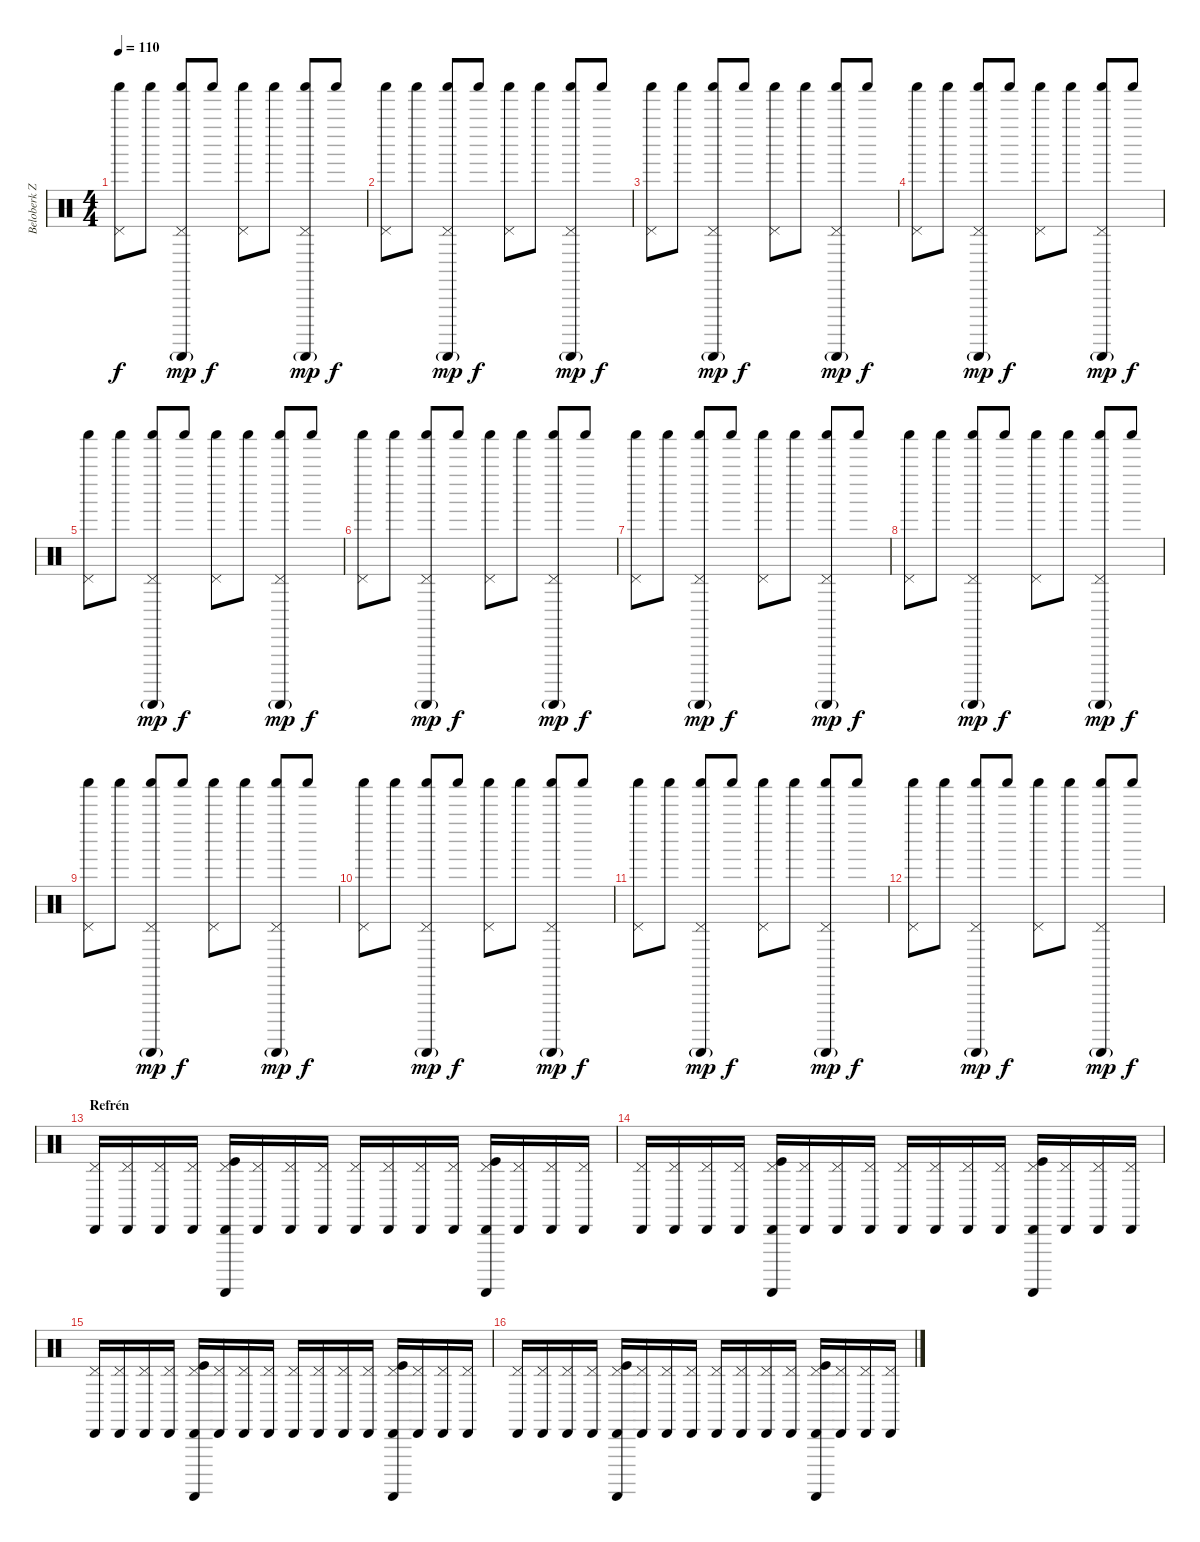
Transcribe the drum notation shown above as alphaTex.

\track ("Beloberk Zsolt" "Beloberk Z") {instrument percussion}
\staff {score}
\articulation defaults
\ts (4 4)
\tempo 110
\clef neutral
\ks c
("Shaker (hit)" "Pedal Hi-Hat (hit)").8{dy f} "Shaker (hit)".8 ("Shaker (hit)" "Guiro (scrap-return)"{g} "Pedal Hi-Hat (hit)").8{dy mp} "Shaker (hit)".8{dy f} ("Shaker (hit)" "Pedal Hi-Hat (hit)").8 "Shaker (hit)".8 ("Shaker (hit)" "Guiro (scrap-return)"{g} "Pedal Hi-Hat (hit)").8{dy mp} "Shaker (hit)".8{dy f} |
("Shaker (hit)" "Pedal Hi-Hat (hit)").8 "Shaker (hit)".8 ("Shaker (hit)" "Guiro (scrap-return)"{g} "Pedal Hi-Hat (hit)").8{dy mp} "Shaker (hit)".8{dy f} ("Shaker (hit)" "Pedal Hi-Hat (hit)").8 "Shaker (hit)".8 ("Shaker (hit)" "Guiro (scrap-return)"{g} "Pedal Hi-Hat (hit)").8{dy mp} "Shaker (hit)".8{dy f} |
("Shaker (hit)" "Pedal Hi-Hat (hit)").8 "Shaker (hit)".8 ("Shaker (hit)" "Guiro (scrap-return)"{g} "Pedal Hi-Hat (hit)").8{dy mp} "Shaker (hit)".8{dy f} ("Shaker (hit)" "Pedal Hi-Hat (hit)").8 "Shaker (hit)".8 ("Shaker (hit)" "Guiro (scrap-return)"{g} "Pedal Hi-Hat (hit)").8{dy mp} "Shaker (hit)".8{dy f} |
("Shaker (hit)" "Pedal Hi-Hat (hit)").8 "Shaker (hit)".8 ("Shaker (hit)" "Guiro (scrap-return)"{g} "Pedal Hi-Hat (hit)").8{dy mp} "Shaker (hit)".8{dy f} ("Shaker (hit)" "Pedal Hi-Hat (hit)").8 "Shaker (hit)".8 ("Shaker (hit)" "Guiro (scrap-return)"{g} "Pedal Hi-Hat (hit)").8{dy mp} "Shaker (hit)".8{dy f} |
("Shaker (hit)" "Pedal Hi-Hat (hit)").8 "Shaker (hit)".8 ("Shaker (hit)" "Guiro (scrap-return)"{g} "Pedal Hi-Hat (hit)").8{dy mp} "Shaker (hit)".8{dy f} ("Shaker (hit)" "Pedal Hi-Hat (hit)").8 "Shaker (hit)".8 ("Shaker (hit)" "Guiro (scrap-return)"{g} "Pedal Hi-Hat (hit)").8{dy mp} "Shaker (hit)".8{dy f} |
("Shaker (hit)" "Pedal Hi-Hat (hit)").8 "Shaker (hit)".8 ("Shaker (hit)" "Guiro (scrap-return)"{g} "Pedal Hi-Hat (hit)").8{dy mp} "Shaker (hit)".8{dy f} ("Shaker (hit)" "Pedal Hi-Hat (hit)").8 "Shaker (hit)".8 ("Shaker (hit)" "Guiro (scrap-return)"{g} "Pedal Hi-Hat (hit)").8{dy mp} "Shaker (hit)".8{dy f} |
("Shaker (hit)" "Pedal Hi-Hat (hit)").8 "Shaker (hit)".8 ("Shaker (hit)" "Guiro (scrap-return)"{g} "Pedal Hi-Hat (hit)").8{dy mp} "Shaker (hit)".8{dy f} ("Shaker (hit)" "Pedal Hi-Hat (hit)").8 "Shaker (hit)".8 ("Shaker (hit)" "Guiro (scrap-return)"{g} "Pedal Hi-Hat (hit)").8{dy mp} "Shaker (hit)".8{dy f} |
("Shaker (hit)" "Pedal Hi-Hat (hit)").8 "Shaker (hit)".8 ("Shaker (hit)" "Guiro (scrap-return)"{g} "Pedal Hi-Hat (hit)").8{dy mp} "Shaker (hit)".8{dy f} ("Shaker (hit)" "Pedal Hi-Hat (hit)").8 "Shaker (hit)".8 ("Shaker (hit)" "Guiro (scrap-return)"{g} "Pedal Hi-Hat (hit)").8{dy mp} "Shaker (hit)".8{dy f} |
("Shaker (hit)" "Pedal Hi-Hat (hit)").8 "Shaker (hit)".8 ("Shaker (hit)" "Guiro (scrap-return)"{g} "Pedal Hi-Hat (hit)").8{dy mp} "Shaker (hit)".8{dy f} ("Shaker (hit)" "Pedal Hi-Hat (hit)").8 "Shaker (hit)".8 ("Shaker (hit)" "Guiro (scrap-return)"{g} "Pedal Hi-Hat (hit)").8{dy mp} "Shaker (hit)".8{dy f} |
("Shaker (hit)" "Pedal Hi-Hat (hit)").8 "Shaker (hit)".8 ("Shaker (hit)" "Guiro (scrap-return)"{g} "Pedal Hi-Hat (hit)").8{dy mp} "Shaker (hit)".8{dy f} ("Shaker (hit)" "Pedal Hi-Hat (hit)").8 "Shaker (hit)".8 ("Shaker (hit)" "Guiro (scrap-return)"{g} "Pedal Hi-Hat (hit)").8{dy mp} "Shaker (hit)".8{dy f} |
("Shaker (hit)" "Pedal Hi-Hat (hit)").8 "Shaker (hit)".8 ("Shaker (hit)" "Guiro (scrap-return)"{g} "Pedal Hi-Hat (hit)").8{dy mp} "Shaker (hit)".8{dy f} ("Shaker (hit)" "Pedal Hi-Hat (hit)").8 "Shaker (hit)".8 ("Shaker (hit)" "Guiro (scrap-return)"{g} "Pedal Hi-Hat (hit)").8{dy mp} "Shaker (hit)".8{dy f} |
("Shaker (hit)" "Pedal Hi-Hat (hit)").8 "Shaker (hit)".8 ("Shaker (hit)" "Guiro (scrap-return)"{g} "Pedal Hi-Hat (hit)").8{dy mp} "Shaker (hit)".8{dy f} ("Shaker (hit)" "Pedal Hi-Hat (hit)").8 "Shaker (hit)".8 ("Shaker (hit)" "Guiro (scrap-return)"{g} "Pedal Hi-Hat (hit)").8{dy mp} "Shaker (hit)".8{dy f} |
\section ("" "Refrén")
("Cabasa (hit)" "Pedal Hi-Hat (hit)").16 ("Cabasa (hit)" "Pedal Hi-Hat (hit)").16 ("Cabasa (hit)" "Pedal Hi-Hat (hit)").16 ("Cabasa (hit)" "Pedal Hi-Hat (hit)").16 ("Cabasa (hit)" "Guiro (scrap-return)" "Pedal Hi-Hat (hit)" "Kick (hit)").16 ("Cabasa (hit)" "Pedal Hi-Hat (hit)").16 ("Cabasa (hit)" "Pedal Hi-Hat (hit)").16 ("Cabasa (hit)" "Pedal Hi-Hat (hit)").16 ("Cabasa (hit)" "Pedal Hi-Hat (hit)").16 ("Cabasa (hit)" "Pedal Hi-Hat (hit)").16 ("Cabasa (hit)" "Pedal Hi-Hat (hit)").16 ("Cabasa (hit)" "Pedal Hi-Hat (hit)").16 ("Cabasa (hit)" "Guiro (scrap-return)" "Pedal Hi-Hat (hit)" "Kick (hit)").16 ("Cabasa (hit)" "Pedal Hi-Hat (hit)").16 ("Cabasa (hit)" "Pedal Hi-Hat (hit)").16 ("Cabasa (hit)" "Pedal Hi-Hat (hit)").16 |
("Cabasa (hit)" "Pedal Hi-Hat (hit)").16 ("Cabasa (hit)" "Pedal Hi-Hat (hit)").16 ("Cabasa (hit)" "Pedal Hi-Hat (hit)").16 ("Cabasa (hit)" "Pedal Hi-Hat (hit)").16 ("Cabasa (hit)" "Guiro (scrap-return)" "Pedal Hi-Hat (hit)" "Kick (hit)").16 ("Cabasa (hit)" "Pedal Hi-Hat (hit)").16 ("Cabasa (hit)" "Pedal Hi-Hat (hit)").16 ("Cabasa (hit)" "Pedal Hi-Hat (hit)").16 ("Cabasa (hit)" "Pedal Hi-Hat (hit)").16 ("Cabasa (hit)" "Pedal Hi-Hat (hit)").16 ("Cabasa (hit)" "Pedal Hi-Hat (hit)").16 ("Cabasa (hit)" "Pedal Hi-Hat (hit)").16 ("Cabasa (hit)" "Guiro (scrap-return)" "Pedal Hi-Hat (hit)" "Kick (hit)").16 ("Cabasa (hit)" "Pedal Hi-Hat (hit)").16 ("Cabasa (hit)" "Pedal Hi-Hat (hit)").16 ("Cabasa (hit)" "Pedal Hi-Hat (hit)").16 |
("Cabasa (hit)" "Pedal Hi-Hat (hit)").16 ("Cabasa (hit)" "Pedal Hi-Hat (hit)").16 ("Cabasa (hit)" "Pedal Hi-Hat (hit)").16 ("Cabasa (hit)" "Pedal Hi-Hat (hit)").16 ("Cabasa (hit)" "Guiro (scrap-return)" "Pedal Hi-Hat (hit)" "Kick (hit)").16 ("Cabasa (hit)" "Pedal Hi-Hat (hit)").16 ("Cabasa (hit)" "Pedal Hi-Hat (hit)").16 ("Cabasa (hit)" "Pedal Hi-Hat (hit)").16 ("Cabasa (hit)" "Pedal Hi-Hat (hit)").16 ("Cabasa (hit)" "Pedal Hi-Hat (hit)").16 ("Cabasa (hit)" "Pedal Hi-Hat (hit)").16 ("Cabasa (hit)" "Pedal Hi-Hat (hit)").16 ("Cabasa (hit)" "Guiro (scrap-return)" "Pedal Hi-Hat (hit)" "Kick (hit)").16 ("Cabasa (hit)" "Pedal Hi-Hat (hit)").16 ("Cabasa (hit)" "Pedal Hi-Hat (hit)").16 ("Cabasa (hit)" "Pedal Hi-Hat (hit)").16 |
("Cabasa (hit)" "Pedal Hi-Hat (hit)").16 ("Cabasa (hit)" "Pedal Hi-Hat (hit)").16 ("Cabasa (hit)" "Pedal Hi-Hat (hit)").16 ("Cabasa (hit)" "Pedal Hi-Hat (hit)").16 ("Cabasa (hit)" "Guiro (scrap-return)" "Pedal Hi-Hat (hit)" "Kick (hit)").16 ("Cabasa (hit)" "Pedal Hi-Hat (hit)").16 ("Cabasa (hit)" "Pedal Hi-Hat (hit)").16 ("Cabasa (hit)" "Pedal Hi-Hat (hit)").16 ("Cabasa (hit)" "Pedal Hi-Hat (hit)").16 ("Cabasa (hit)" "Pedal Hi-Hat (hit)").16 ("Cabasa (hit)" "Pedal Hi-Hat (hit)").16 ("Cabasa (hit)" "Pedal Hi-Hat (hit)").16 ("Cabasa (hit)" "Guiro (scrap-return)" "Pedal Hi-Hat (hit)" "Kick (hit)").16 ("Cabasa (hit)" "Pedal Hi-Hat (hit)").16 ("Cabasa (hit)" "Pedal Hi-Hat (hit)").16 ("Cabasa (hit)" "Pedal Hi-Hat (hit)").16
